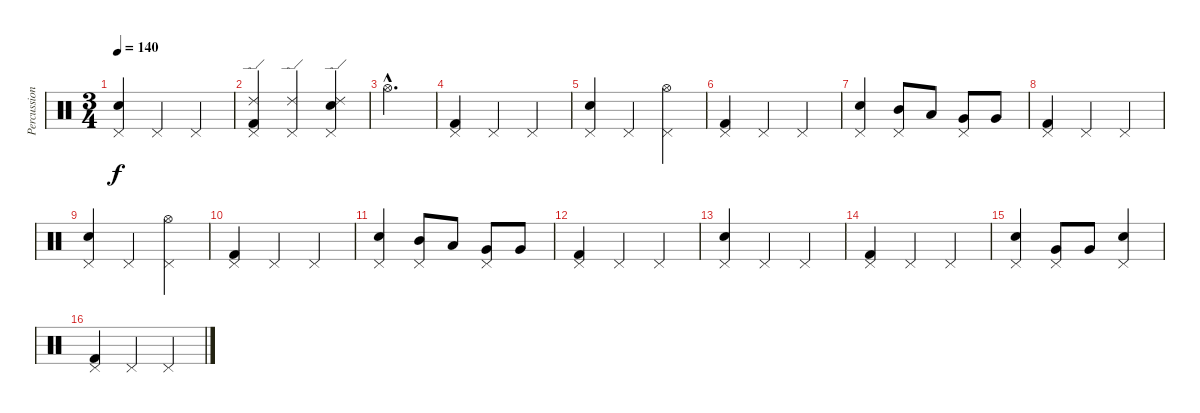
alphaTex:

\track ("Percussion" "Percussion") {instrument percussion}
\staff {score}
\articulation defaults
\ts (3 4)
\tempo 140
\clef neutral
\ks c
("Pedal Hi-Hat (hit)" "Electric Snare (hit)").4{dy f} "Pedal Hi-Hat (hit)".4 "Pedal Hi-Hat (hit)".4 |
("Pedal Hi-Hat (hit)" "Ride (edge) 2" "Kick (hit) 2").4 ("Pedal Hi-Hat (hit)" "Ride (edge) 2").4 ("Pedal Hi-Hat (hit)" "Ride (edge) 2" "Snare (hit) 2").4 |
"Hi-Hat (open)"{hac}.2{d} |
("Pedal Hi-Hat (hit)" "Kick (hit) 2").4 "Pedal Hi-Hat (hit)".4 "Pedal Hi-Hat (hit)".4 |
("Pedal Hi-Hat (hit)" "Snare (hit) 2").4 "Pedal Hi-Hat (hit)".4 ("Pedal Hi-Hat (hit)" "Hi-Hat (open)").4 |
("Pedal Hi-Hat (hit)" "Kick (hit) 2").4 "Pedal Hi-Hat (hit)".4 "Pedal Hi-Hat (hit)".4 |
("Pedal Hi-Hat (hit)" "Snare (hit) 2").4 ("Pedal Hi-Hat (hit)" "Mid Tom (hit)").8 "Low Tom (hit)".8 ("Pedal Hi-Hat (hit)" "Very Low Tom (hit)").8 "Very Low Tom (hit)".8 |
("Pedal Hi-Hat (hit)" "Kick (hit) 2").4 "Pedal Hi-Hat (hit)".4 "Pedal Hi-Hat (hit)".4 |
("Pedal Hi-Hat (hit)" "Snare (hit) 2").4 "Pedal Hi-Hat (hit)".4 ("Pedal Hi-Hat (hit)" "Hi-Hat (open)").4 |
("Pedal Hi-Hat (hit)" "Kick (hit) 2").4 "Pedal Hi-Hat (hit)".4 "Pedal Hi-Hat (hit)".4 |
("Pedal Hi-Hat (hit)" "Snare (hit) 2").4 ("Pedal Hi-Hat (hit)" "Mid Tom (hit)").8 "Low Tom (hit)".8 ("Pedal Hi-Hat (hit)" "Very Low Tom (hit)").8 "Very Low Tom (hit)".8 |
("Pedal Hi-Hat (hit)" "Kick (hit) 2").4 "Pedal Hi-Hat (hit)".4 "Pedal Hi-Hat (hit)".4 |
("Pedal Hi-Hat (hit)" "Snare (hit) 2").4 "Pedal Hi-Hat (hit)".4 "Pedal Hi-Hat (hit)".4 |
("Pedal Hi-Hat (hit)" "Kick (hit) 2").4 "Pedal Hi-Hat (hit)".4 "Pedal Hi-Hat (hit)".4 |
("Pedal Hi-Hat (hit)" "Snare (hit) 2").4 ("Pedal Hi-Hat (hit)" "Very Low Tom (hit)").8 "Very Low Tom (hit)".8 ("Pedal Hi-Hat (hit)" "Snare (hit) 2").4 |
("Pedal Hi-Hat (hit)" "Kick (hit) 2").4 "Pedal Hi-Hat (hit)".4 "Pedal Hi-Hat (hit)".4
